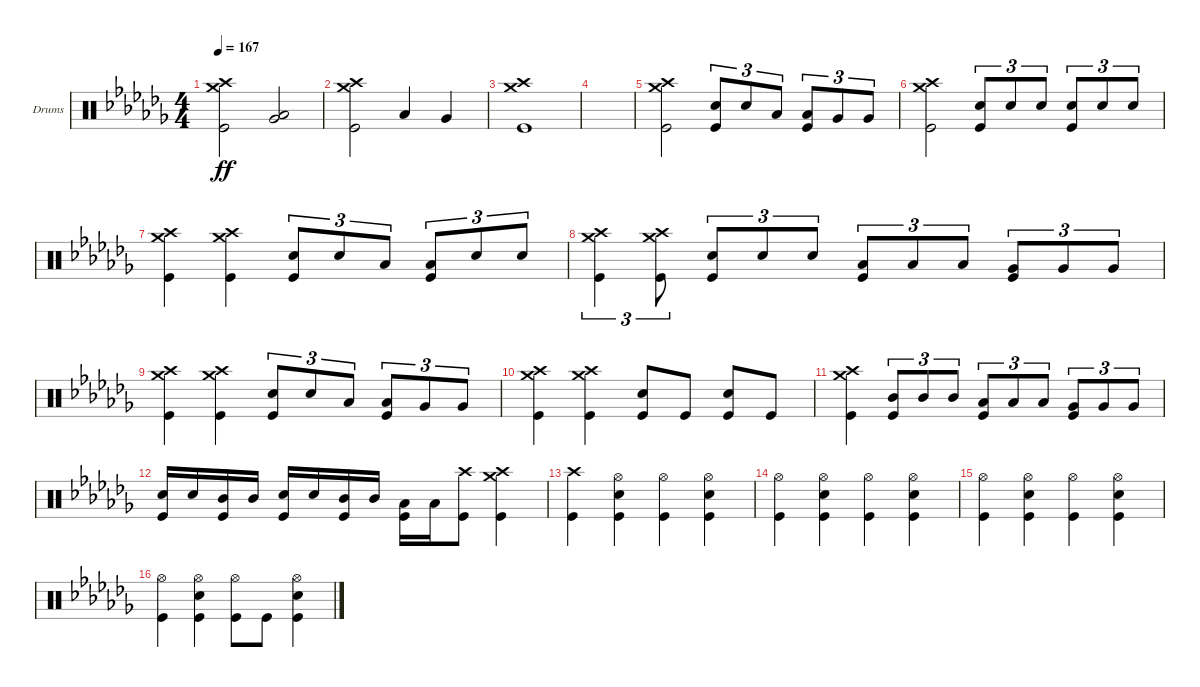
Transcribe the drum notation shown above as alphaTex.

\defaultSystemsLayout 4
\bracketExtendMode groupsimilarinstruments
\firstSystemTrackNameOrientation horizontal
\otherSystemsTrackNameOrientation horizontal
\track ("Drumkit" "Drums") {instrument percussion}
\staff {score}
\articulation defaults
\ts (4 4)
\tempo 167
\clef neutral
\ks abminor
("Kick (hit)" "Crash high (hit)" "Crash medium (hit)").2{dy ff} ("Low Tom (hit)" "Very Low Tom (hit)").2 |
("Kick (hit)" "Crash high (hit)" "Crash medium (hit)").2 "Low Tom (hit)".4 "Very Low Tom (hit)".4 |
("Kick (hit)" "Crash high (hit)" "Crash medium (hit)").1 |
|
("Kick (hit)" "Crash high (hit)" "Crash medium (hit)").2 ("Snare (hit) 2" "Kick (hit)").8{tu (3 2)} "Snare (hit) 2".8{tu (3 2)} "Low Tom (hit)".8{tu (3 2)} ("Low Tom (hit)" "Kick (hit)").8{tu (3 2)} "Very Low Tom (hit)".8{tu (3 2)} "Very Low Tom (hit)".8{tu (3 2)} |
("Kick (hit)" "Crash high (hit)" "Crash medium (hit)").2 ("Snare (hit) 2" "Kick (hit)").8{tu (3 2)} "Snare (hit) 2".8{tu (3 2)} "Snare (hit) 2".8{tu (3 2)} ("Snare (hit) 2" "Kick (hit)").8{tu (3 2)} "Snare (hit) 2".8{tu (3 2)} "Snare (hit) 2".8{tu (3 2)} |
("Kick (hit)" "Crash high (hit)" "Crash medium (hit)").4 ("Kick (hit)" "Crash high (hit)" "Crash medium (hit)").4 ("Snare (hit) 2" "Kick (hit)").8{tu (3 2)} "Snare (hit) 2".8{tu (3 2)} "Low Tom (hit)".8{tu (3 2)} ("Low Tom (hit)" "Kick (hit)").8{tu (3 2)} "Snare (hit) 2".8{tu (3 2)} "Snare (hit) 2".8{tu (3 2)} |
("Kick (hit)" "Crash high (hit)" "Crash medium (hit)").4{tu (3 2)} ("Kick (hit)" "Crash high (hit)" "Crash medium (hit)").8{tu (3 2)} ("Snare (hit) 2" "Kick (hit)").8{tu (3 2)} "Snare (hit) 2".8{tu (3 2)} "Snare (hit) 2".8{tu (3 2)} ("Low Tom (hit)" "Kick (hit)").8{tu (3 2)} "Low Tom (hit)".8{tu (3 2)} "Low Tom (hit)".8{tu (3 2)} ("Very Low Tom (hit)" "Kick (hit)").8{tu (3 2)} "Very Low Tom (hit)".8{tu (3 2)} "Very Low Tom (hit)".8{tu (3 2)} |
("Kick (hit)" "Crash high (hit)" "Crash medium (hit)").4 ("Kick (hit)" "Crash high (hit)" "Crash medium (hit)").4 ("Snare (hit) 2" "Kick (hit)").8{tu (3 2)} "Snare (hit) 2".8{tu (3 2)} "Low Tom (hit)".8{tu (3 2)} ("Low Tom (hit)" "Kick (hit)").8{tu (3 2)} "Very Low Tom (hit)".8{tu (3 2)} "Very Low Tom (hit)".8{tu (3 2)} |
("Kick (hit)" "Crash high (hit)" "Crash medium (hit)").4 ("Kick (hit)" "Crash high (hit)" "Crash medium (hit)").4 ("Snare (hit) 2" "Kick (hit)").8 "Kick (hit)".8 ("Snare (hit) 2" "Kick (hit)").8 "Kick (hit)".8 |
("Kick (hit)" "Crash high (hit)" "Crash medium (hit)").4 ("Mid Tom (hit)" "Kick (hit)").8{tu (3 2)} "Mid Tom (hit)".8{tu (3 2)} "Mid Tom (hit)".8{tu (3 2)} ("Low Tom (hit)" "Kick (hit)").8{tu (3 2)} "Low Tom (hit)".8{tu (3 2)} "Low Tom (hit)".8{tu (3 2)} ("Very Low Tom (hit)" "Kick (hit)").8{tu (3 2)} "Very Low Tom (hit)".8{tu (3 2)} "Very Low Tom (hit)".8{tu (3 2)} |
("Snare (hit) 2" "Kick (hit)").16 "Snare (hit) 2".16 ("Mid Tom (hit)" "Kick (hit)").16 "Mid Tom (hit)".16 ("Snare (hit) 2" "Kick (hit)").16 "Snare (hit) 2".16 ("Mid Tom (hit)" "Kick (hit)").16 "Mid Tom (hit)".16 ("Low Tom (hit)" "Kick (hit)").16 "Low Tom (hit)".16 ("Kick (hit)" "Crash high (hit)").8 ("Kick (hit)" "Crash high (hit)" "Crash medium (hit)").4 |
("Kick (hit)" "Crash high (hit)").4 ("Snare (hit) 2" "Hi-Hat (open)" "Kick (hit)").4 ("Kick (hit)" "Hi-Hat (open)").4 ("Snare (hit) 2" "Hi-Hat (open)" "Kick (hit)").4 |
("Kick (hit)" "Hi-Hat (open)").4 ("Snare (hit) 2" "Hi-Hat (open)" "Kick (hit)").4 ("Kick (hit)" "Hi-Hat (open)").4 ("Snare (hit) 2" "Hi-Hat (open)" "Kick (hit)").4 |
("Kick (hit)" "Hi-Hat (open)").4 ("Snare (hit) 2" "Hi-Hat (open)" "Kick (hit)").4 ("Kick (hit)" "Hi-Hat (open)").4 ("Snare (hit) 2" "Hi-Hat (open)" "Kick (hit)").4 |
("Kick (hit)" "Hi-Hat (open)").4 ("Snare (hit) 2" "Hi-Hat (open)" "Kick (hit)").4 ("Kick (hit)" "Hi-Hat (open)").8 "Kick (hit)".8 ("Snare (hit) 2" "Hi-Hat (open)" "Kick (hit)").4
